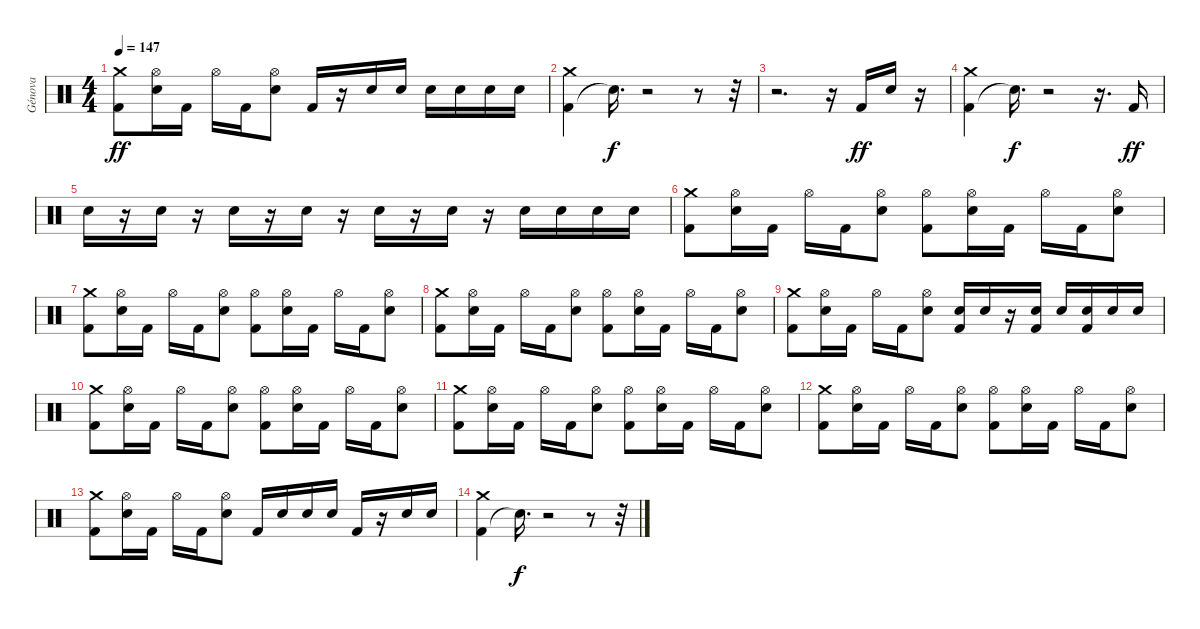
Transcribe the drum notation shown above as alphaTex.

\track ("Génova" "Génova") {instrument percussion}
\staff {score}
\articulation defaults
\ts (4 4)
\tempo 147
\clef neutral
\ks c
("Crash medium (hit)" "Kick (hit) 2").8{dy ff} ("Electric Snare (hit)" "Hi-Hat (open)").16 "Kick (hit) 2".16 "Hi-Hat (open)".16 "Kick (hit) 2".16 ("Electric Snare (hit)" "Hi-Hat (open)").8 "Kick (hit) 2".16 r.16 "Electric Snare (hit)".16 "Electric Snare (hit)".16 "Electric Snare (hit)".16 "Electric Snare (hit)".16 "Electric Snare (hit)".16 "Electric Snare (hit)".16 |
("Kick (hit) 2" "Crash medium (hit)").4 "Snare (hit)"{t}.16{d dy f} r.2 r.8 r.32 |
r.2{d} r.16 "Kick (hit) 2".16{dy ff} "Electric Snare (hit)".16 r.16 |
("Kick (hit) 2" "Crash medium (hit)").4 "Snare (hit)"{t}.16{d dy f} r.2 r.16{d} "Kick (hit) 2".16{dy ff} |
"Electric Snare (hit)".16 r.16 "Electric Snare (hit)".16 r.16 "Electric Snare (hit)".16 r.16 "Electric Snare (hit)".16 r.16 "Electric Snare (hit)".16 r.16 "Electric Snare (hit)".16 r.16 "Electric Snare (hit)".16 "Electric Snare (hit)".16 "Electric Snare (hit)".16 "Electric Snare (hit)".16 |
("Kick (hit) 2" "Crash medium (hit)").8 ("Electric Snare (hit)" "Hi-Hat (open)").16 "Kick (hit) 2".16 "Hi-Hat (open)".16 "Kick (hit) 2".16 ("Electric Snare (hit)" "Hi-Hat (open)").8 ("Kick (hit) 2" "Hi-Hat (open)").8 ("Electric Snare (hit)" "Hi-Hat (open)").16 "Kick (hit) 2".16 "Hi-Hat (open)".16 "Kick (hit) 2".16 ("Electric Snare (hit)" "Hi-Hat (open)").8 |
("Kick (hit) 2" "Crash medium (hit)").8 ("Electric Snare (hit)" "Hi-Hat (open)").16 "Kick (hit) 2".16 "Hi-Hat (open)".16 "Kick (hit) 2".16 ("Electric Snare (hit)" "Hi-Hat (open)").8 ("Kick (hit) 2" "Hi-Hat (open)").8 ("Electric Snare (hit)" "Hi-Hat (open)").16 "Kick (hit) 2".16 "Hi-Hat (open)".16 "Kick (hit) 2".16 ("Electric Snare (hit)" "Hi-Hat (open)").8 |
("Kick (hit) 2" "Crash medium (hit)").8 ("Electric Snare (hit)" "Hi-Hat (open)").16 "Kick (hit) 2".16 "Hi-Hat (open)".16 "Kick (hit) 2".16 ("Electric Snare (hit)" "Hi-Hat (open)").8 ("Kick (hit) 2" "Hi-Hat (open)").8 ("Electric Snare (hit)" "Hi-Hat (open)").16 "Kick (hit) 2".16 "Hi-Hat (open)".16 "Kick (hit) 2".16 ("Electric Snare (hit)" "Hi-Hat (open)").8 |
("Kick (hit) 2" "Crash medium (hit)").8 ("Electric Snare (hit)" "Hi-Hat (open)").16 "Kick (hit) 2".16 "Hi-Hat (open)".16 "Kick (hit) 2".16 ("Electric Snare (hit)" "Hi-Hat (open)").8 ("Electric Snare (hit)" "Kick (hit) 2").16 "Electric Snare (hit)".16 r.16 ("Electric Snare (hit)" "Kick (hit) 2").16 "Electric Snare (hit)".16 ("Electric Snare (hit)" "Kick (hit) 2").16 "Electric Snare (hit)".16 "Electric Snare (hit)".16 |
("Kick (hit) 2" "Crash medium (hit)").8 ("Electric Snare (hit)" "Hi-Hat (open)").16 "Kick (hit) 2".16 "Hi-Hat (open)".16 "Kick (hit) 2".16 ("Electric Snare (hit)" "Hi-Hat (open)").8 ("Kick (hit) 2" "Hi-Hat (open)").8 ("Electric Snare (hit)" "Hi-Hat (open)").16 "Kick (hit) 2".16 "Hi-Hat (open)".16 "Kick (hit) 2".16 ("Electric Snare (hit)" "Hi-Hat (open)").8 |
("Kick (hit) 2" "Crash medium (hit)").8 ("Electric Snare (hit)" "Hi-Hat (open)").16 "Kick (hit) 2".16 "Hi-Hat (open)".16 "Kick (hit) 2".16 ("Electric Snare (hit)" "Hi-Hat (open)").8 ("Kick (hit) 2" "Hi-Hat (open)").8 ("Electric Snare (hit)" "Hi-Hat (open)").16 "Kick (hit) 2".16 "Hi-Hat (open)".16 "Kick (hit) 2".16 ("Electric Snare (hit)" "Hi-Hat (open)").8 |
("Kick (hit) 2" "Crash medium (hit)").8 ("Electric Snare (hit)" "Hi-Hat (open)").16 "Kick (hit) 2".16 "Hi-Hat (open)".16 "Kick (hit) 2".16 ("Electric Snare (hit)" "Hi-Hat (open)").8 ("Kick (hit) 2" "Hi-Hat (open)").8 ("Electric Snare (hit)" "Hi-Hat (open)").16 "Kick (hit) 2".16 "Hi-Hat (open)".16 "Kick (hit) 2".16 ("Electric Snare (hit)" "Hi-Hat (open)").8 |
("Kick (hit) 2" "Crash medium (hit)").8 ("Electric Snare (hit)" "Hi-Hat (open)").16 "Kick (hit) 2".16 "Hi-Hat (open)".16 "Kick (hit) 2".16 ("Electric Snare (hit)" "Hi-Hat (open)").8 "Kick (hit) 2".16 "Electric Snare (hit)".16 "Electric Snare (hit)".16 "Electric Snare (hit)".16 "Kick (hit) 2".16 r.16 "Electric Snare (hit)".16 "Electric Snare (hit)".16 |
("Kick (hit) 2" "Crash medium (hit)").4 "Snare (hit)"{t}.16{d dy f} r.2 r.8 r.32
